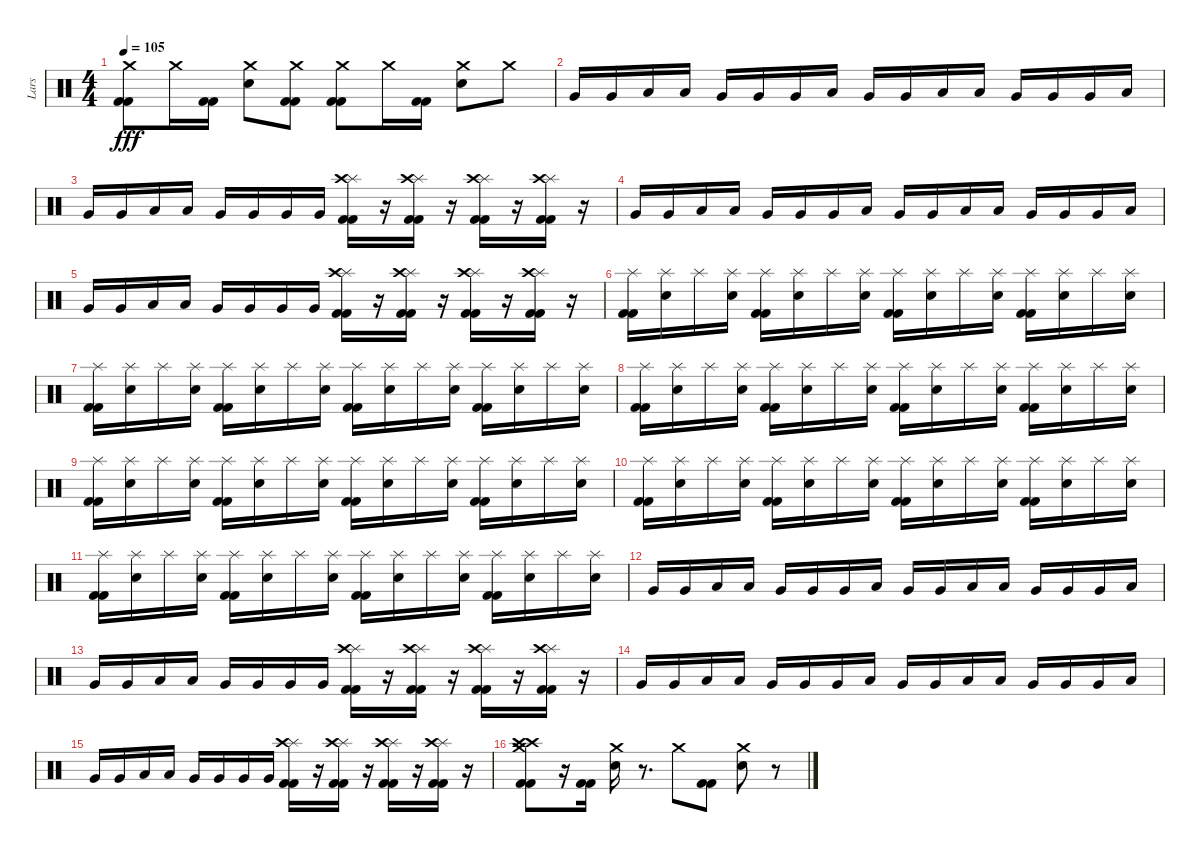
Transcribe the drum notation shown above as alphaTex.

\track ("Lars" "Lars") {instrument percussion}
\staff {score}
\articulation defaults
\ts (4 4)
\tempo 105
\clef neutral
\ks c
("Crash medium (hit)" "Kick (hit) 2" "Kick (hit) 2").8{dy fff} "Crash medium (hit)".16 ("Kick (hit) 2" "Kick (hit) 2").16 ("Crash medium (hit)" "Electric Snare (hit)").8 ("Crash medium (hit)" "Kick (hit) 2" "Kick (hit) 2").8 ("Crash medium (hit)" "Kick (hit) 2" "Kick (hit) 2").8 "Crash medium (hit)".16 ("Kick (hit) 2" "Kick (hit) 2").16 ("Crash medium (hit)" "Electric Snare (hit)").8 "Crash medium (hit)".8 |
"Very Low Tom (hit)".16 "Very Low Tom (hit)".16 "Low Tom (hit)".16 "Low Tom (hit)".16 "Very Low Tom (hit)".16 "Very Low Tom (hit)".16 "Very Low Tom (hit)".16 "Low Floor Tom (hit)".16 "Very Low Tom (hit)".16 "Very Low Tom (hit)".16 "Low Tom (hit)".16 "Low Tom (hit)".16 "Very Low Tom (hit)".16 "Very Low Tom (hit)".16 "Very Low Tom (hit)".16 "Low Floor Tom (hit)".16 |
"Very Low Tom (hit)".16 "Very Low Tom (hit)".16 "Low Tom (hit)".16 "Low Tom (hit)".16 "Very Low Tom (hit)".16 "Very Low Tom (hit)".16 "Very Low Tom (hit)".16 "Very Low Tom (hit)".16 ("Splash (hit)" "Crash high (hit)" "Kick (hit) 2" "Kick (hit) 2").16 r.16 ("Splash (hit)" "Crash high (hit)" "Kick (hit) 2" "Kick (hit) 2").16 r.16 ("Splash (hit)" "Crash high (hit)" "Kick (hit) 2" "Kick (hit) 2").16 r.16 ("Splash (hit)" "Crash high (hit)" "Kick (hit) 2" "Kick (hit) 2").16 r.16 |
"Very Low Tom (hit)".16 "Very Low Tom (hit)".16 "Low Tom (hit)".16 "Low Tom (hit)".16 "Very Low Tom (hit)".16 "Very Low Tom (hit)".16 "Very Low Tom (hit)".16 "Low Floor Tom (hit)".16 "Very Low Tom (hit)".16 "Very Low Tom (hit)".16 "Low Tom (hit)".16 "Low Tom (hit)".16 "Very Low Tom (hit)".16 "Very Low Tom (hit)".16 "Very Low Tom (hit)".16 "Low Floor Tom (hit)".16 |
"Very Low Tom (hit)".16 "Very Low Tom (hit)".16 "Low Tom (hit)".16 "Low Tom (hit)".16 "Very Low Tom (hit)".16 "Very Low Tom (hit)".16 "Very Low Tom (hit)".16 "Very Low Tom (hit)".16 ("Splash (hit)" "Crash high (hit)" "Kick (hit) 2" "Kick (hit) 2").16 r.16 ("Splash (hit)" "Crash high (hit)" "Kick (hit) 2" "Kick (hit) 2").16 r.16 ("Splash (hit)" "Crash high (hit)" "Kick (hit) 2" "Kick (hit) 2").16 r.16 ("Splash (hit)" "Crash high (hit)" "Kick (hit) 2" "Kick (hit) 2").16 r.16 |
("Splash (hit)" "Kick (hit) 2" "Kick (hit) 2").16 ("Splash (hit)" "Electric Snare (hit)").16 "Splash (hit)".16 ("Splash (hit)" "Electric Snare (hit)").16 ("Splash (hit)" "Kick (hit) 2" "Kick (hit) 2").16 ("Splash (hit)" "Electric Snare (hit)").16 "Splash (hit)".16 ("Splash (hit)" "Electric Snare (hit)").16 ("Splash (hit)" "Kick (hit) 2" "Kick (hit) 2").16 ("Splash (hit)" "Electric Snare (hit)").16 "Splash (hit)".16 ("Splash (hit)" "Electric Snare (hit)").16 ("Splash (hit)" "Kick (hit) 2" "Kick (hit) 2").16 ("Splash (hit)" "Electric Snare (hit)").16 "Splash (hit)".16 ("Splash (hit)" "Electric Snare (hit)").16 |
("Splash (hit)" "Kick (hit) 2" "Kick (hit) 2").16 ("Splash (hit)" "Electric Snare (hit)").16 "Splash (hit)".16 ("Splash (hit)" "Electric Snare (hit)").16 ("Splash (hit)" "Kick (hit) 2" "Kick (hit) 2").16 ("Splash (hit)" "Electric Snare (hit)").16 "Splash (hit)".16 ("Splash (hit)" "Electric Snare (hit)").16 ("Splash (hit)" "Kick (hit) 2" "Kick (hit) 2").16 ("Splash (hit)" "Electric Snare (hit)").16 "Splash (hit)".16 ("Splash (hit)" "Electric Snare (hit)").16 ("Splash (hit)" "Kick (hit) 2" "Kick (hit) 2").16 ("Splash (hit)" "Electric Snare (hit)").16 "Splash (hit)".16 ("Splash (hit)" "Electric Snare (hit)").16 |
("Splash (hit)" "Kick (hit) 2" "Kick (hit) 2").16 ("Splash (hit)" "Electric Snare (hit)").16 "Splash (hit)".16 ("Splash (hit)" "Electric Snare (hit)").16 ("Splash (hit)" "Kick (hit) 2" "Kick (hit) 2").16 ("Splash (hit)" "Electric Snare (hit)").16 "Splash (hit)".16 ("Splash (hit)" "Electric Snare (hit)").16 ("Splash (hit)" "Kick (hit) 2" "Kick (hit) 2").16 ("Splash (hit)" "Electric Snare (hit)").16 "Splash (hit)".16 ("Splash (hit)" "Electric Snare (hit)").16 ("Splash (hit)" "Kick (hit) 2" "Kick (hit) 2").16 ("Splash (hit)" "Electric Snare (hit)").16 "Splash (hit)".16 ("Splash (hit)" "Electric Snare (hit)").16 |
("Splash (hit)" "Kick (hit) 2" "Kick (hit) 2").16 ("Splash (hit)" "Electric Snare (hit)").16 "Splash (hit)".16 ("Splash (hit)" "Electric Snare (hit)").16 ("Splash (hit)" "Kick (hit) 2" "Kick (hit) 2").16 ("Splash (hit)" "Electric Snare (hit)").16 "Splash (hit)".16 ("Splash (hit)" "Electric Snare (hit)").16 ("Splash (hit)" "Kick (hit) 2" "Kick (hit) 2").16 ("Splash (hit)" "Electric Snare (hit)").16 "Splash (hit)".16 ("Splash (hit)" "Electric Snare (hit)").16 ("Splash (hit)" "Kick (hit) 2" "Kick (hit) 2").16 ("Splash (hit)" "Electric Snare (hit)").16 "Splash (hit)".16 ("Splash (hit)" "Electric Snare (hit)").16 |
("Splash (hit)" "Kick (hit) 2" "Kick (hit) 2").16 ("Splash (hit)" "Electric Snare (hit)").16 "Splash (hit)".16 ("Splash (hit)" "Electric Snare (hit)").16 ("Splash (hit)" "Kick (hit) 2" "Kick (hit) 2").16 ("Splash (hit)" "Electric Snare (hit)").16 "Splash (hit)".16 ("Splash (hit)" "Electric Snare (hit)").16 ("Splash (hit)" "Kick (hit) 2" "Kick (hit) 2").16 ("Splash (hit)" "Electric Snare (hit)").16 "Splash (hit)".16 ("Splash (hit)" "Electric Snare (hit)").16 ("Splash (hit)" "Kick (hit) 2" "Kick (hit) 2").16 ("Splash (hit)" "Electric Snare (hit)").16 "Splash (hit)".16 ("Splash (hit)" "Electric Snare (hit)").16 |
("Splash (hit)" "Kick (hit) 2" "Kick (hit) 2").16 ("Splash (hit)" "Electric Snare (hit)").16 "Splash (hit)".16 ("Splash (hit)" "Electric Snare (hit)").16 ("Splash (hit)" "Kick (hit) 2" "Kick (hit) 2").16 ("Splash (hit)" "Electric Snare (hit)").16 "Splash (hit)".16 ("Splash (hit)" "Electric Snare (hit)").16 ("Splash (hit)" "Kick (hit) 2" "Kick (hit) 2").16 ("Splash (hit)" "Electric Snare (hit)").16 "Splash (hit)".16 ("Splash (hit)" "Electric Snare (hit)").16 ("Splash (hit)" "Kick (hit) 2" "Kick (hit) 2").16 ("Splash (hit)" "Electric Snare (hit)").16 "Splash (hit)".16 ("Splash (hit)" "Electric Snare (hit)").16 |
"Very Low Tom (hit)".16 "Very Low Tom (hit)".16 "Low Tom (hit)".16 "Low Tom (hit)".16 "Very Low Tom (hit)".16 "Very Low Tom (hit)".16 "Very Low Tom (hit)".16 "Low Floor Tom (hit)".16 "Very Low Tom (hit)".16 "Very Low Tom (hit)".16 "Low Tom (hit)".16 "Low Tom (hit)".16 "Very Low Tom (hit)".16 "Very Low Tom (hit)".16 "Very Low Tom (hit)".16 "Low Floor Tom (hit)".16 |
"Very Low Tom (hit)".16 "Very Low Tom (hit)".16 "Low Tom (hit)".16 "Low Tom (hit)".16 "Very Low Tom (hit)".16 "Very Low Tom (hit)".16 "Very Low Tom (hit)".16 "Very Low Tom (hit)".16 ("Splash (hit)" "Crash high (hit)" "Kick (hit) 2" "Kick (hit) 2").16 r.16 ("Splash (hit)" "Crash high (hit)" "Kick (hit) 2" "Kick (hit) 2").16 r.16 ("Splash (hit)" "Crash high (hit)" "Kick (hit) 2" "Kick (hit) 2").16 r.16 ("Splash (hit)" "Crash high (hit)" "Kick (hit) 2" "Kick (hit) 2").16 r.16 |
"Very Low Tom (hit)".16 "Very Low Tom (hit)".16 "Low Tom (hit)".16 "Low Tom (hit)".16 "Very Low Tom (hit)".16 "Very Low Tom (hit)".16 "Very Low Tom (hit)".16 "Low Floor Tom (hit)".16 "Very Low Tom (hit)".16 "Very Low Tom (hit)".16 "Low Tom (hit)".16 "Low Tom (hit)".16 "Very Low Tom (hit)".16 "Very Low Tom (hit)".16 "Very Low Tom (hit)".16 "Low Floor Tom (hit)".16 |
"Very Low Tom (hit)".16 "Very Low Tom (hit)".16 "Low Tom (hit)".16 "Low Tom (hit)".16 "Very Low Tom (hit)".16 "Very Low Tom (hit)".16 "Very Low Tom (hit)".16 "Very Low Tom (hit)".16 ("Splash (hit)" "Crash high (hit)" "Kick (hit) 2" "Kick (hit) 2").16 r.16 ("Splash (hit)" "Crash high (hit)" "Kick (hit) 2" "Kick (hit) 2").16 r.16 ("Splash (hit)" "Crash high (hit)" "Kick (hit) 2" "Kick (hit) 2").16 r.16 ("Splash (hit)" "Crash high (hit)" "Kick (hit) 2" "Kick (hit) 2").16 r.16 |
("Crash high (hit)" "Crash high (hit)" "Crash medium (hit)" "Kick (hit) 2" "Kick (hit) 2").8 r.16 ("Kick (hit) 2" "Kick (hit) 2").16 ("Crash medium (hit)" "Electric Snare (hit)").16 r.8{d} "Crash medium (hit)".8 ("Kick (hit) 2" "Kick (hit) 2").8 ("Crash medium (hit)" "Electric Snare (hit)").8 r.8
